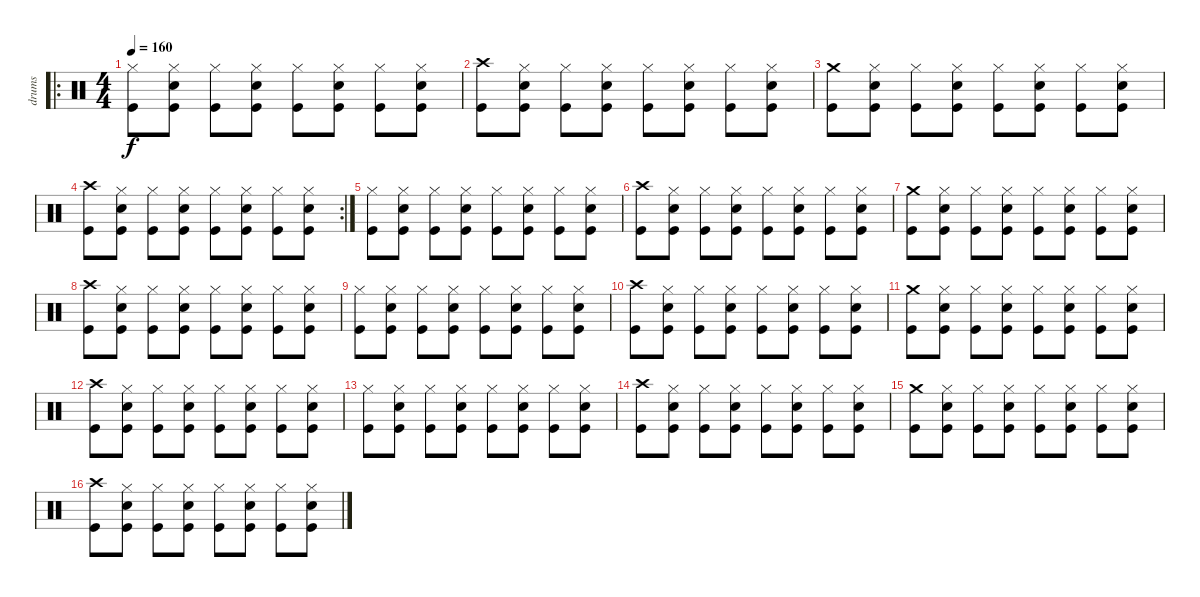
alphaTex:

\track ("drums" "drums") {instrument percussion}
\staff {score}
\articulation defaults
\ro
\ts (4 4)
\tempo 160
\clef neutral
\ks c
("Hi-Hat (closed)" "Kick (hit)").8{dy f} ("Hi-Hat (closed)" "Snare (hit) 2" "Kick (hit)").8 ("Hi-Hat (closed)" "Kick (hit)").8 ("Hi-Hat (closed)" "Snare (hit) 2" "Kick (hit)").8 ("Hi-Hat (closed)" "Kick (hit)").8 ("Hi-Hat (closed)" "Snare (hit) 2" "Kick (hit)").8 ("Hi-Hat (closed)" "Kick (hit)").8 ("Hi-Hat (closed)" "Snare (hit) 2" "Kick (hit)").8 |
("Crash high (hit)" "Kick (hit)").8 ("Hi-Hat (closed)" "Snare (hit) 2" "Kick (hit)").8 ("Hi-Hat (closed)" "Kick (hit)").8 ("Hi-Hat (closed)" "Snare (hit) 2" "Kick (hit)").8 ("Hi-Hat (closed)" "Kick (hit)").8 ("Hi-Hat (closed)" "Snare (hit) 2" "Kick (hit)").8 ("Hi-Hat (closed)" "Kick (hit)").8 ("Hi-Hat (closed)" "Snare (hit) 2" "Kick (hit)").8 |
("Crash medium (hit)" "Kick (hit)").8 ("Hi-Hat (closed)" "Snare (hit) 2" "Kick (hit)").8 ("Hi-Hat (closed)" "Kick (hit)").8 ("Hi-Hat (closed)" "Snare (hit) 2" "Kick (hit)").8 ("Hi-Hat (closed)" "Kick (hit)").8 ("Hi-Hat (closed)" "Snare (hit) 2" "Kick (hit)").8 ("Hi-Hat (closed)" "Kick (hit)").8 ("Hi-Hat (closed)" "Snare (hit) 2" "Kick (hit)").8 |
\rc 2
("Crash high (hit)" "Kick (hit)").8 ("Hi-Hat (closed)" "Snare (hit) 2" "Kick (hit)").8 ("Hi-Hat (closed)" "Kick (hit)").8 ("Hi-Hat (closed)" "Snare (hit) 2" "Kick (hit)").8 ("Hi-Hat (closed)" "Kick (hit)").8 ("Hi-Hat (closed)" "Snare (hit) 2" "Kick (hit)").8 ("Hi-Hat (closed)" "Kick (hit)").8 ("Hi-Hat (closed)" "Snare (hit) 2" "Kick (hit)").8 |
("Hi-Hat (closed)" "Kick (hit)").8 ("Hi-Hat (closed)" "Snare (hit) 2" "Kick (hit)").8 ("Hi-Hat (closed)" "Kick (hit)").8 ("Hi-Hat (closed)" "Snare (hit) 2" "Kick (hit)").8 ("Hi-Hat (closed)" "Kick (hit)").8 ("Hi-Hat (closed)" "Snare (hit) 2" "Kick (hit)").8 ("Hi-Hat (closed)" "Kick (hit)").8 ("Hi-Hat (closed)" "Snare (hit) 2" "Kick (hit)").8 |
("Crash high (hit)" "Kick (hit)").8 ("Hi-Hat (closed)" "Snare (hit) 2" "Kick (hit)").8 ("Hi-Hat (closed)" "Kick (hit)").8 ("Hi-Hat (closed)" "Snare (hit) 2" "Kick (hit)").8 ("Hi-Hat (closed)" "Kick (hit)").8 ("Hi-Hat (closed)" "Snare (hit) 2" "Kick (hit)").8 ("Hi-Hat (closed)" "Kick (hit)").8 ("Hi-Hat (closed)" "Snare (hit) 2" "Kick (hit)").8 |
("Crash medium (hit)" "Kick (hit)").8 ("Hi-Hat (closed)" "Snare (hit) 2" "Kick (hit)").8 ("Hi-Hat (closed)" "Kick (hit)").8 ("Hi-Hat (closed)" "Snare (hit) 2" "Kick (hit)").8 ("Hi-Hat (closed)" "Kick (hit)").8 ("Hi-Hat (closed)" "Snare (hit) 2" "Kick (hit)").8 ("Hi-Hat (closed)" "Kick (hit)").8 ("Hi-Hat (closed)" "Snare (hit) 2" "Kick (hit)").8 |
("Crash high (hit)" "Kick (hit)").8 ("Hi-Hat (closed)" "Snare (hit) 2" "Kick (hit)").8 ("Hi-Hat (closed)" "Kick (hit)").8 ("Hi-Hat (closed)" "Snare (hit) 2" "Kick (hit)").8 ("Hi-Hat (closed)" "Kick (hit)").8 ("Hi-Hat (closed)" "Snare (hit) 2" "Kick (hit)").8 ("Hi-Hat (closed)" "Kick (hit)").8 ("Hi-Hat (closed)" "Snare (hit) 2" "Kick (hit)").8 |
("Hi-Hat (closed)" "Kick (hit)").8 ("Hi-Hat (closed)" "Snare (hit) 2" "Kick (hit)").8 ("Hi-Hat (closed)" "Kick (hit)").8 ("Hi-Hat (closed)" "Snare (hit) 2" "Kick (hit)").8 ("Hi-Hat (closed)" "Kick (hit)").8 ("Hi-Hat (closed)" "Snare (hit) 2" "Kick (hit)").8 ("Hi-Hat (closed)" "Kick (hit)").8 ("Hi-Hat (closed)" "Snare (hit) 2" "Kick (hit)").8 |
("Crash high (hit)" "Kick (hit)").8 ("Hi-Hat (closed)" "Snare (hit) 2" "Kick (hit)").8 ("Hi-Hat (closed)" "Kick (hit)").8 ("Hi-Hat (closed)" "Snare (hit) 2" "Kick (hit)").8 ("Hi-Hat (closed)" "Kick (hit)").8 ("Hi-Hat (closed)" "Snare (hit) 2" "Kick (hit)").8 ("Hi-Hat (closed)" "Kick (hit)").8 ("Hi-Hat (closed)" "Snare (hit) 2" "Kick (hit)").8 |
("Crash medium (hit)" "Kick (hit)").8 ("Hi-Hat (closed)" "Snare (hit) 2" "Kick (hit)").8 ("Hi-Hat (closed)" "Kick (hit)").8 ("Hi-Hat (closed)" "Snare (hit) 2" "Kick (hit)").8 ("Hi-Hat (closed)" "Kick (hit)").8 ("Hi-Hat (closed)" "Snare (hit) 2" "Kick (hit)").8 ("Hi-Hat (closed)" "Kick (hit)").8 ("Hi-Hat (closed)" "Snare (hit) 2" "Kick (hit)").8 |
("Crash high (hit)" "Kick (hit)").8 ("Hi-Hat (closed)" "Snare (hit) 2" "Kick (hit)").8 ("Hi-Hat (closed)" "Kick (hit)").8 ("Hi-Hat (closed)" "Snare (hit) 2" "Kick (hit)").8 ("Hi-Hat (closed)" "Kick (hit)").8 ("Hi-Hat (closed)" "Snare (hit) 2" "Kick (hit)").8 ("Hi-Hat (closed)" "Kick (hit)").8 ("Hi-Hat (closed)" "Snare (hit) 2" "Kick (hit)").8 |
("Hi-Hat (closed)" "Kick (hit)").8 ("Hi-Hat (closed)" "Snare (hit) 2" "Kick (hit)").8 ("Hi-Hat (closed)" "Kick (hit)").8 ("Hi-Hat (closed)" "Snare (hit) 2" "Kick (hit)").8 ("Hi-Hat (closed)" "Kick (hit)").8 ("Hi-Hat (closed)" "Snare (hit) 2" "Kick (hit)").8 ("Hi-Hat (closed)" "Kick (hit)").8 ("Hi-Hat (closed)" "Snare (hit) 2" "Kick (hit)").8 |
("Crash high (hit)" "Kick (hit)").8 ("Hi-Hat (closed)" "Snare (hit) 2" "Kick (hit)").8 ("Hi-Hat (closed)" "Kick (hit)").8 ("Hi-Hat (closed)" "Snare (hit) 2" "Kick (hit)").8 ("Hi-Hat (closed)" "Kick (hit)").8 ("Hi-Hat (closed)" "Snare (hit) 2" "Kick (hit)").8 ("Hi-Hat (closed)" "Kick (hit)").8 ("Hi-Hat (closed)" "Snare (hit) 2" "Kick (hit)").8 |
("Crash medium (hit)" "Kick (hit)").8 ("Hi-Hat (closed)" "Snare (hit) 2" "Kick (hit)").8 ("Hi-Hat (closed)" "Kick (hit)").8 ("Hi-Hat (closed)" "Snare (hit) 2" "Kick (hit)").8 ("Hi-Hat (closed)" "Kick (hit)").8 ("Hi-Hat (closed)" "Snare (hit) 2" "Kick (hit)").8 ("Hi-Hat (closed)" "Kick (hit)").8 ("Hi-Hat (closed)" "Snare (hit) 2" "Kick (hit)").8 |
("Crash high (hit)" "Kick (hit)").8 ("Hi-Hat (closed)" "Snare (hit) 2" "Kick (hit)").8 ("Hi-Hat (closed)" "Kick (hit)").8 ("Hi-Hat (closed)" "Snare (hit) 2" "Kick (hit)").8 ("Hi-Hat (closed)" "Kick (hit)").8 ("Hi-Hat (closed)" "Snare (hit) 2" "Kick (hit)").8 ("Hi-Hat (closed)" "Kick (hit)").8 ("Hi-Hat (closed)" "Snare (hit) 2" "Kick (hit)").8
